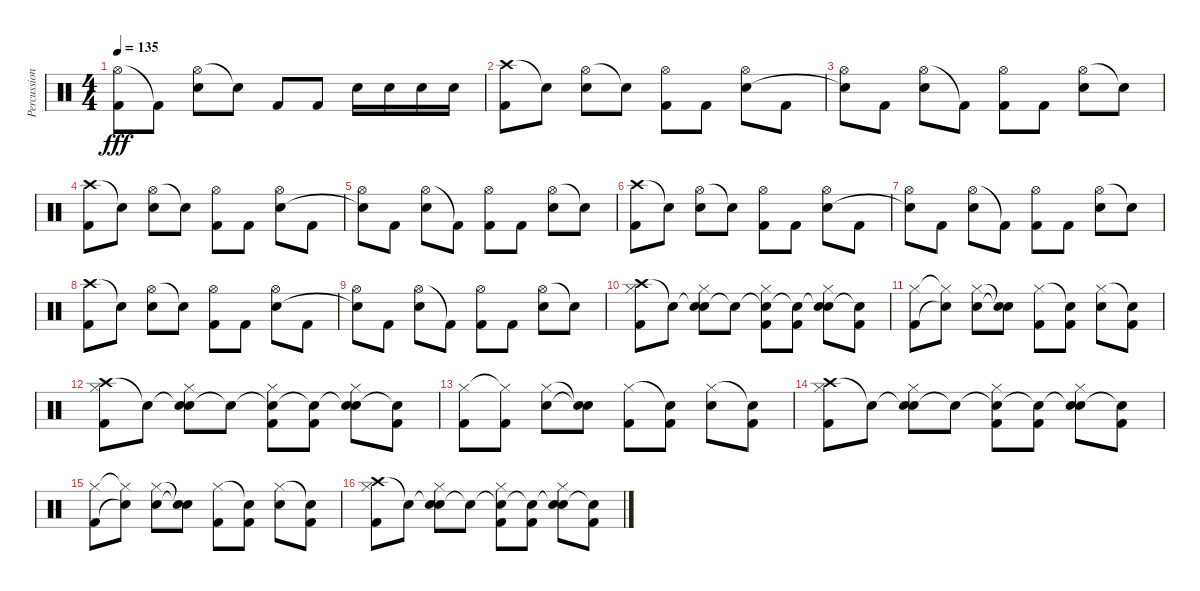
\track ("Percussion" "Percussion") {instrument percussion}
\staff {score}
\articulation defaults
\ts (4 4)
\tempo 135
\clef neutral
\ks c
("Hi-Hat (open)" "Kick (hit) 2").8{dy fff} "Kick (hit) 2"{t}.8 ("Hi-Hat (open)" "Electric Snare (hit)").8 "Snare (hit)"{t}.8 "Kick (hit) 2".8 "Kick (hit) 2".8 "Electric Snare (hit)".16 "Electric Snare (hit)".16 "Electric Snare (hit)".16 "Electric Snare (hit)".16 |
("Crash high (hit)" "Kick (hit) 2").8 "Snare (hit)"{t}.8 ("Hi-Hat (open)" "Electric Snare (hit)").8 "Snare (hit)"{t}.8 ("Hi-Hat (open)" "Kick (hit) 2").8 "Kick (hit) 2".8 ("Hi-Hat (open)" "Electric Snare (hit)").8 "Kick (hit) 2".8 |
("Hi-Hat (open)" "Snare (hit)"{t}).8 "Kick (hit) 2".8 ("Hi-Hat (open)" "Electric Snare (hit)").8 "Kick (hit) 2"{t}.8 ("Hi-Hat (open)" "Kick (hit) 2").8 "Kick (hit) 2".8 ("Hi-Hat (open)" "Electric Snare (hit)").8 "Snare (hit)"{t}.8 |
("Crash high (hit)" "Kick (hit) 2").8 "Snare (hit)"{t}.8 ("Hi-Hat (open)" "Electric Snare (hit)").8 "Snare (hit)"{t}.8 ("Hi-Hat (open)" "Kick (hit) 2").8 "Kick (hit) 2".8 ("Hi-Hat (open)" "Electric Snare (hit)").8 "Kick (hit) 2".8 |
("Hi-Hat (open)" "Snare (hit)"{t}).8 "Kick (hit) 2".8 ("Hi-Hat (open)" "Electric Snare (hit)").8 "Kick (hit) 2"{t}.8 ("Hi-Hat (open)" "Kick (hit) 2").8 "Kick (hit) 2".8 ("Hi-Hat (open)" "Electric Snare (hit)").8 "Snare (hit)"{t}.8 |
("Crash high (hit)" "Kick (hit) 2").8 "Snare (hit)"{t}.8 ("Hi-Hat (open)" "Electric Snare (hit)").8 "Snare (hit)"{t}.8 ("Hi-Hat (open)" "Kick (hit) 2").8 "Kick (hit) 2".8 ("Hi-Hat (open)" "Electric Snare (hit)").8 "Kick (hit) 2".8 |
("Hi-Hat (open)" "Snare (hit)"{t}).8 "Kick (hit) 2".8 ("Hi-Hat (open)" "Electric Snare (hit)").8 "Kick (hit) 2"{t}.8 ("Hi-Hat (open)" "Kick (hit) 2").8 "Kick (hit) 2".8 ("Hi-Hat (open)" "Electric Snare (hit)").8 "Snare (hit)"{t}.8 |
("Crash high (hit)" "Kick (hit) 2").8 "Snare (hit)"{t}.8 ("Hi-Hat (open)" "Electric Snare (hit)").8 "Snare (hit)"{t}.8 ("Hi-Hat (open)" "Kick (hit) 2").8 "Kick (hit) 2".8 ("Hi-Hat (open)" "Electric Snare (hit)").8 "Kick (hit) 2".8 |
("Hi-Hat (open)" "Snare (hit)"{t}).8 "Kick (hit) 2".8 ("Hi-Hat (open)" "Electric Snare (hit)").8 "Kick (hit) 2"{t}.8 ("Hi-Hat (open)" "Kick (hit) 2").8 "Kick (hit) 2".8 ("Hi-Hat (open)" "Electric Snare (hit)").8 "Snare (hit)"{t}.8 |
("Crash high (hit)" "Kick (hit) 2" "Hi-Hat (closed)").8 "Snare (hit)"{t}.8 ("Snare (hit)"{t} "Electric Snare (hit)" "Hi-Hat (closed)").8 "Snare (hit)"{t}.8 ("Snare (hit)"{t} "Kick (hit) 2" "Hi-Hat (closed)").8 ("Snare (hit)"{t} "Kick (hit) 2").8 ("Snare (hit)"{t} "Electric Snare (hit)" "Hi-Hat (closed)").8 ("Snare (hit)"{t} "Kick (hit) 2").8 |
("Kick (hit) 2" "Hi-Hat (closed)").8 ("Snare (hit)"{t} "Hi-Hat (closed)"{t}).8 ("Electric Snare (hit)" "Hi-Hat (closed)").8 ("Snare (hit)"{t} "Snare (hit)"{t}).8 ("Kick (hit) 2" "Hi-Hat (closed)").8 ("Kick (hit) 2" "Snare (hit)"{t}).8 ("Electric Snare (hit)" "Hi-Hat (closed)").8 ("Kick (hit) 2" "Snare (hit)"{t}).8 |
("Crash high (hit)" "Kick (hit) 2" "Hi-Hat (closed)").8 "Snare (hit)"{t}.8 ("Snare (hit)"{t} "Electric Snare (hit)" "Hi-Hat (closed)").8 "Snare (hit)"{t}.8 ("Snare (hit)"{t} "Kick (hit) 2" "Hi-Hat (closed)").8 ("Snare (hit)"{t} "Kick (hit) 2").8 ("Snare (hit)"{t} "Electric Snare (hit)" "Hi-Hat (closed)").8 ("Snare (hit)"{t} "Kick (hit) 2").8 |
("Kick (hit) 2" "Hi-Hat (closed)").8 ("Kick (hit) 2" "Hi-Hat (closed)"{t}).8 ("Electric Snare (hit)" "Hi-Hat (closed)").8 ("Snare (hit)"{t} "Snare (hit)"{t}).8 ("Kick (hit) 2" "Hi-Hat (closed)").8 ("Kick (hit) 2" "Snare (hit)"{t}).8 ("Electric Snare (hit)" "Hi-Hat (closed)").8 ("Kick (hit) 2" "Snare (hit)"{t}).8 |
("Crash high (hit)" "Kick (hit) 2" "Hi-Hat (closed)").8 "Snare (hit)"{t}.8 ("Snare (hit)"{t} "Electric Snare (hit)" "Hi-Hat (closed)").8 "Snare (hit)"{t}.8 ("Snare (hit)"{t} "Kick (hit) 2" "Hi-Hat (closed)").8 ("Snare (hit)"{t} "Kick (hit) 2").8 ("Snare (hit)"{t} "Electric Snare (hit)" "Hi-Hat (closed)").8 ("Snare (hit)"{t} "Kick (hit) 2").8 |
("Kick (hit) 2" "Hi-Hat (closed)").8 ("Snare (hit)"{t} "Hi-Hat (closed)"{t}).8 ("Electric Snare (hit)" "Hi-Hat (closed)").8 ("Snare (hit)"{t} "Snare (hit)"{t}).8 ("Kick (hit) 2" "Hi-Hat (closed)").8 ("Kick (hit) 2" "Snare (hit)"{t}).8 ("Electric Snare (hit)" "Hi-Hat (closed)").8 ("Kick (hit) 2" "Snare (hit)"{t}).8 |
("Crash high (hit)" "Kick (hit) 2" "Hi-Hat (closed)").8 "Snare (hit)"{t}.8 ("Snare (hit)"{t} "Electric Snare (hit)" "Hi-Hat (closed)").8 "Snare (hit)"{t}.8 ("Snare (hit)"{t} "Kick (hit) 2" "Hi-Hat (closed)").8 ("Snare (hit)"{t} "Kick (hit) 2").8 ("Snare (hit)"{t} "Electric Snare (hit)" "Hi-Hat (closed)").8 ("Snare (hit)"{t} "Kick (hit) 2").8
